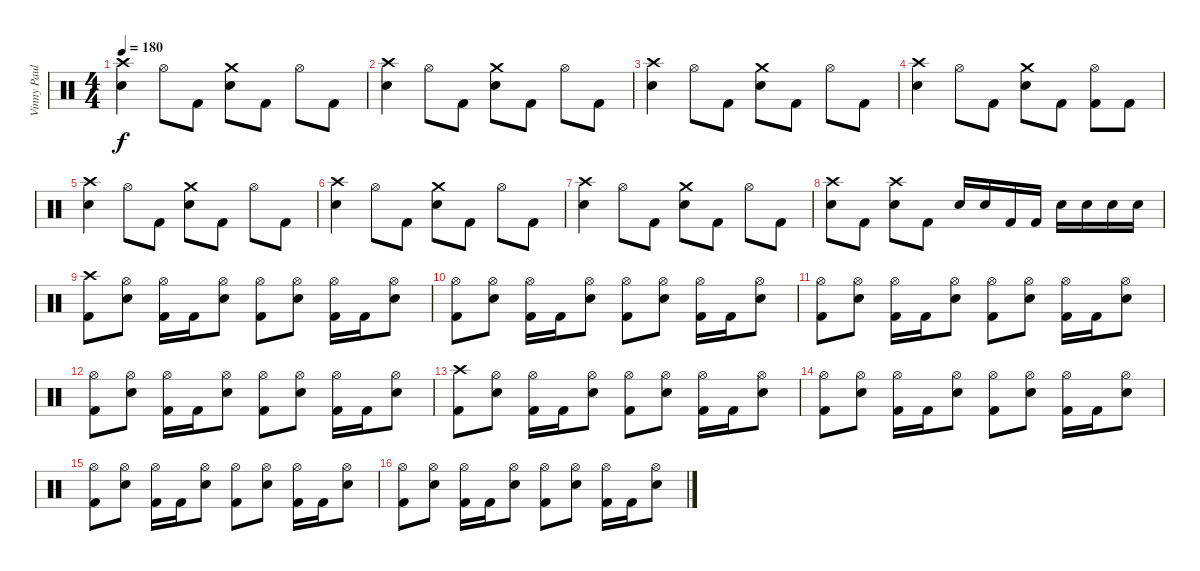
\track ("Vinny Paul" "Vinny Paul") {instrument percussion}
\staff {score}
\articulation defaults
\ts (4 4)
\tempo 180
\clef neutral
\ks c
("Crash high (hit)" "Electric Snare (hit)").4{dy f} "Hi-Hat (open)".8 "Kick (hit) 2".8 ("Crash medium (hit)" "Electric Snare (hit)").8 "Kick (hit) 2".8 "Hi-Hat (open)".8 "Kick (hit) 2".8 |
("Crash high (hit)" "Electric Snare (hit)").4 "Hi-Hat (open)".8 "Kick (hit) 2".8 ("Crash medium (hit)" "Electric Snare (hit)").8 "Kick (hit) 2".8 "Hi-Hat (open)".8 "Kick (hit) 2".8 |
("Crash high (hit)" "Electric Snare (hit)").4 "Hi-Hat (open)".8 "Kick (hit) 2".8 ("Crash medium (hit)" "Electric Snare (hit)").8 "Kick (hit) 2".8 "Hi-Hat (open)".8 "Kick (hit) 2".8 |
("Crash high (hit)" "Electric Snare (hit)").4 "Hi-Hat (open)".8 "Kick (hit) 2".8 ("Crash medium (hit)" "Electric Snare (hit)").8 "Kick (hit) 2".8 ("Hi-Hat (open)" "Kick (hit) 2").8 "Kick (hit) 2".8 |
("Crash high (hit)" "Electric Snare (hit)").4 "Hi-Hat (open)".8 "Kick (hit) 2".8 ("Crash medium (hit)" "Electric Snare (hit)").8 "Kick (hit) 2".8 "Hi-Hat (open)".8 "Kick (hit) 2".8 |
("Crash high (hit)" "Electric Snare (hit)").4 "Hi-Hat (open)".8 "Kick (hit) 2".8 ("Crash medium (hit)" "Electric Snare (hit)").8 "Kick (hit) 2".8 "Hi-Hat (open)".8 "Kick (hit) 2".8 |
("Crash high (hit)" "Electric Snare (hit)").4 "Hi-Hat (open)".8 "Kick (hit) 2".8 ("Crash medium (hit)" "Electric Snare (hit)").8 "Kick (hit) 2".8 "Hi-Hat (open)".8 "Kick (hit) 2".8 |
("Crash high (hit)" "Electric Snare (hit)").8 "Kick (hit) 2".8 ("Crash high (hit)" "Electric Snare (hit)").8 "Kick (hit) 2".8 "Electric Snare (hit)".16 "Electric Snare (hit)".16 "Kick (hit) 2".16 "Kick (hit) 2".16 "Electric Snare (hit)".16 "Electric Snare (hit)".16 "Electric Snare (hit)".16 "Electric Snare (hit)".16 |
("Crash high (hit)" "Kick (hit) 2").8 ("Hi-Hat (open)" "Electric Snare (hit)").8 ("Hi-Hat (open)" "Kick (hit) 2").16 "Kick (hit) 2".16 ("Hi-Hat (open)" "Electric Snare (hit)").8 ("Hi-Hat (open)" "Kick (hit) 2").8 ("Hi-Hat (open)" "Electric Snare (hit)").8 ("Hi-Hat (open)" "Kick (hit) 2").16 "Kick (hit) 2".16 ("Hi-Hat (open)" "Electric Snare (hit)").8 |
("Hi-Hat (open)" "Kick (hit) 2").8 ("Hi-Hat (open)" "Electric Snare (hit)").8 ("Hi-Hat (open)" "Kick (hit) 2").16 "Kick (hit) 2".16 ("Hi-Hat (open)" "Electric Snare (hit)").8 ("Hi-Hat (open)" "Kick (hit) 2").8 ("Hi-Hat (open)" "Electric Snare (hit)").8 ("Hi-Hat (open)" "Kick (hit) 2").16 "Kick (hit) 2".16 ("Hi-Hat (open)" "Electric Snare (hit)").8 |
("Hi-Hat (open)" "Kick (hit) 2").8 ("Hi-Hat (open)" "Electric Snare (hit)").8 ("Hi-Hat (open)" "Kick (hit) 2").16 "Kick (hit) 2".16 ("Hi-Hat (open)" "Electric Snare (hit)").8 ("Hi-Hat (open)" "Kick (hit) 2").8 ("Hi-Hat (open)" "Electric Snare (hit)").8 ("Hi-Hat (open)" "Kick (hit) 2").16 "Kick (hit) 2".16 ("Hi-Hat (open)" "Electric Snare (hit)").8 |
("Hi-Hat (open)" "Kick (hit) 2").8 ("Hi-Hat (open)" "Electric Snare (hit)").8 ("Hi-Hat (open)" "Kick (hit) 2").16 "Kick (hit) 2".16 ("Hi-Hat (open)" "Electric Snare (hit)").8 ("Hi-Hat (open)" "Kick (hit) 2").8 ("Hi-Hat (open)" "Electric Snare (hit)").8 ("Hi-Hat (open)" "Kick (hit) 2").16 "Kick (hit) 2".16 ("Hi-Hat (open)" "Electric Snare (hit)").8 |
("Crash high (hit)" "Kick (hit) 2").8 ("Hi-Hat (open)" "Electric Snare (hit)").8 ("Hi-Hat (open)" "Kick (hit) 2").16 "Kick (hit) 2".16 ("Hi-Hat (open)" "Electric Snare (hit)").8 ("Hi-Hat (open)" "Kick (hit) 2").8 ("Hi-Hat (open)" "Electric Snare (hit)").8 ("Hi-Hat (open)" "Kick (hit) 2").16 "Kick (hit) 2".16 ("Hi-Hat (open)" "Electric Snare (hit)").8 |
("Hi-Hat (open)" "Kick (hit) 2").8 ("Hi-Hat (open)" "Electric Snare (hit)").8 ("Hi-Hat (open)" "Kick (hit) 2").16 "Kick (hit) 2".16 ("Hi-Hat (open)" "Electric Snare (hit)").8 ("Hi-Hat (open)" "Kick (hit) 2").8 ("Hi-Hat (open)" "Electric Snare (hit)").8 ("Hi-Hat (open)" "Kick (hit) 2").16 "Kick (hit) 2".16 ("Hi-Hat (open)" "Electric Snare (hit)").8 |
("Hi-Hat (open)" "Kick (hit) 2").8 ("Hi-Hat (open)" "Electric Snare (hit)").8 ("Hi-Hat (open)" "Kick (hit) 2").16 "Kick (hit) 2".16 ("Hi-Hat (open)" "Electric Snare (hit)").8 ("Hi-Hat (open)" "Kick (hit) 2").8 ("Hi-Hat (open)" "Electric Snare (hit)").8 ("Hi-Hat (open)" "Kick (hit) 2").16 "Kick (hit) 2".16 ("Hi-Hat (open)" "Electric Snare (hit)").8 |
("Hi-Hat (open)" "Kick (hit) 2").8 ("Hi-Hat (open)" "Electric Snare (hit)").8 ("Hi-Hat (open)" "Kick (hit) 2").16 "Kick (hit) 2".16 ("Hi-Hat (open)" "Electric Snare (hit)").8 ("Hi-Hat (open)" "Kick (hit) 2").8 ("Hi-Hat (open)" "Electric Snare (hit)").8 ("Hi-Hat (open)" "Kick (hit) 2").16 "Kick (hit) 2".16 ("Hi-Hat (open)" "Electric Snare (hit)").8
